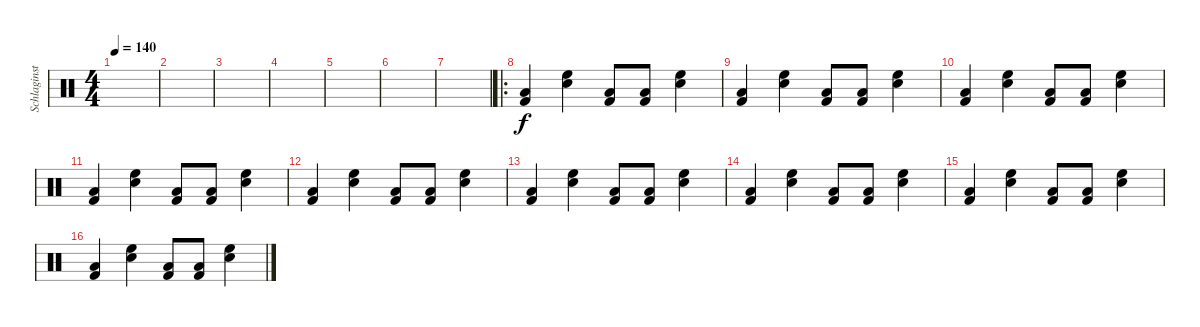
\track ("Schlaginstrumente - Auswahl" "Schlaginst") {instrument percussion}
\staff {score}
\articulation defaults
\ts (4 4)
\tempo 140
\clef neutral
\ks c
|
|
|
|
|
|
|
\ro
("Low Tom (hit)" "Kick (hit) 2").4 ("Snare (hit) 2" "High Floor Tom (hit)").4 ("Low Tom (hit)" "Kick (hit) 2").8 ("Low Tom (hit)" "Kick (hit) 2").8 ("Snare (hit) 2" "High Floor Tom (hit)").4 |
("Low Tom (hit)" "Kick (hit) 2").4 ("Snare (hit) 2" "High Floor Tom (hit)").4 ("Low Tom (hit)" "Kick (hit) 2").8 ("Low Tom (hit)" "Kick (hit) 2").8 ("Snare (hit) 2" "High Floor Tom (hit)").4 |
("Low Tom (hit)" "Kick (hit) 2").4 ("Snare (hit) 2" "High Floor Tom (hit)").4 ("Low Tom (hit)" "Kick (hit) 2").8 ("Low Tom (hit)" "Kick (hit) 2").8 ("Snare (hit) 2" "High Floor Tom (hit)").4 |
("Low Tom (hit)" "Kick (hit) 2").4 ("Snare (hit) 2" "High Floor Tom (hit)").4 ("Low Tom (hit)" "Kick (hit) 2").8 ("Low Tom (hit)" "Kick (hit) 2").8 ("Snare (hit) 2" "High Floor Tom (hit)").4 |
("Low Tom (hit)" "Kick (hit) 2").4 ("Snare (hit) 2" "High Floor Tom (hit)").4 ("Low Tom (hit)" "Kick (hit) 2").8 ("Low Tom (hit)" "Kick (hit) 2").8 ("Snare (hit) 2" "High Floor Tom (hit)").4 |
("Low Tom (hit)" "Kick (hit) 2").4 ("Snare (hit) 2" "High Floor Tom (hit)").4 ("Low Tom (hit)" "Kick (hit) 2").8 ("Low Tom (hit)" "Kick (hit) 2").8 ("Snare (hit) 2" "High Floor Tom (hit)").4 |
("Low Tom (hit)" "Kick (hit) 2").4 ("Snare (hit) 2" "High Floor Tom (hit)").4 ("Low Tom (hit)" "Kick (hit) 2").8 ("Low Tom (hit)" "Kick (hit) 2").8 ("Snare (hit) 2" "High Floor Tom (hit)").4 |
("Low Tom (hit)" "Kick (hit) 2").4 ("Snare (hit) 2" "High Floor Tom (hit)").4 ("Low Tom (hit)" "Kick (hit) 2").8 ("Low Tom (hit)" "Kick (hit) 2").8 ("Snare (hit) 2" "High Floor Tom (hit)").4 |
("Low Tom (hit)" "Kick (hit) 2").4 ("Snare (hit) 2" "High Floor Tom (hit)").4 ("Low Tom (hit)" "Kick (hit) 2").8 ("Low Tom (hit)" "Kick (hit) 2").8 ("Snare (hit) 2" "High Floor Tom (hit)").4
